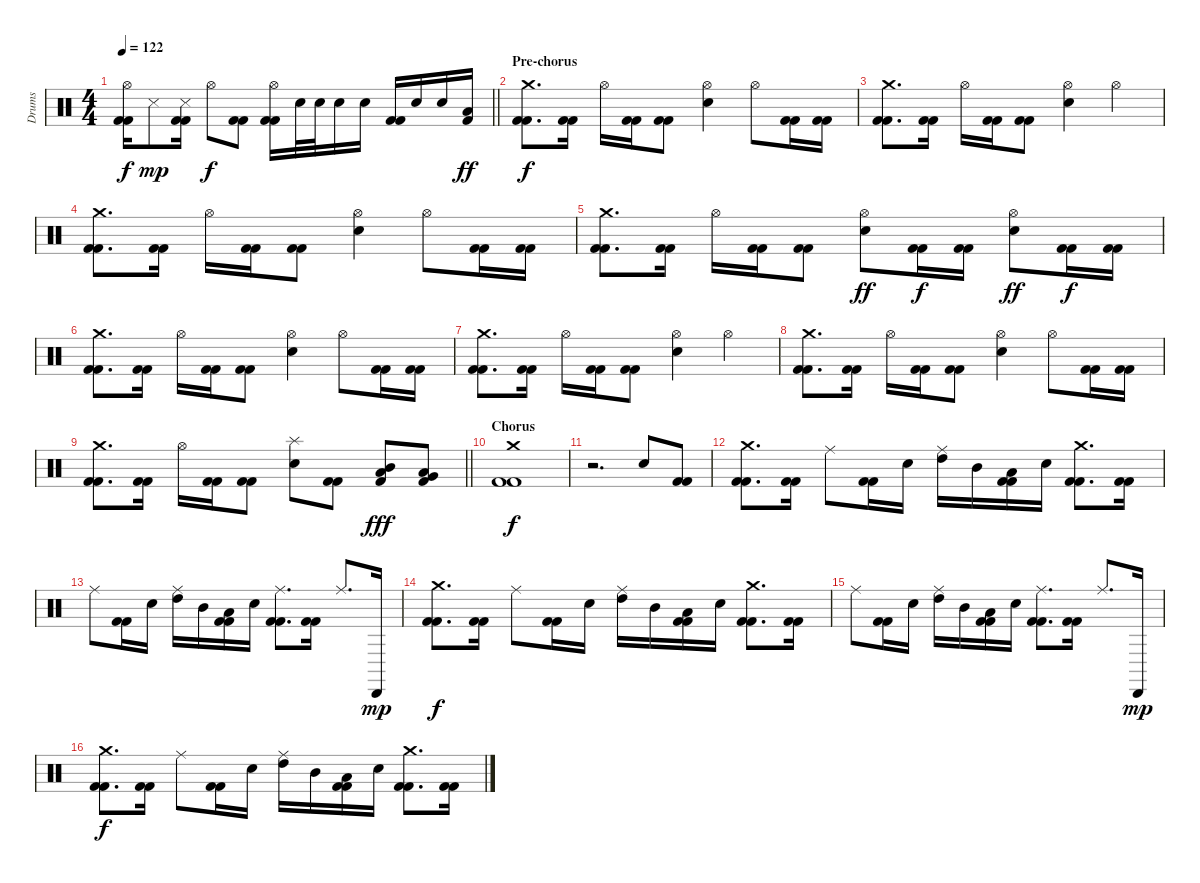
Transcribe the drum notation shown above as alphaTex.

\track ("Drums" "Drums") {instrument percussion}
\staff {score}
\articulation defaults
\ts (4 4)
\tempo 122
\clef neutral
\barLineRight lightlight
\ks c
("Hi-Hat (open)" "Kick (hit) 2" "Kick (hit) 2").16{dy f} "Snare (side stick) 3".8{dy mp} ("Snare (side stick) 3" "Kick (hit) 2" "Kick (hit) 2").16 "Hi-Hat (open)".8{dy f} ("Kick (hit) 2" "Kick (hit) 2").8 ("Hi-Hat (open)" "Kick (hit) 2" "Kick (hit) 2").16 "Electric Snare (hit)".32 "Electric Snare (hit)".32 "Electric Snare (hit)".16 "Electric Snare (hit)".16 ("Kick (hit) 2" "Kick (hit) 2").16 "Electric Snare (hit)".16 "Electric Snare (hit)".16 ("Low Tom (hit)" "Kick (hit) 2").16{dy ff} |
\section ("" "Pre-chorus")
("Crash medium (hit)" "Kick (hit) 2" "Kick (hit) 2").8{d dy f} ("Kick (hit) 2" "Kick (hit) 2").16 "Hi-Hat (open)".16 ("Kick (hit) 2" "Kick (hit) 2").16 ("Kick (hit) 2" "Kick (hit) 2").8 ("Hi-Hat (open)" "Electric Snare (hit)").4 "Hi-Hat (open)".8 ("Kick (hit) 2" "Kick (hit) 2").16 ("Kick (hit) 2" "Kick (hit) 2").16 |
("Crash medium (hit)" "Kick (hit) 2" "Kick (hit) 2").8{d} ("Kick (hit) 2" "Kick (hit) 2").16 "Hi-Hat (open)".16 ("Kick (hit) 2" "Kick (hit) 2").16 ("Kick (hit) 2" "Kick (hit) 2").8 ("Hi-Hat (open)" "Electric Snare (hit)").4 "Hi-Hat (open)".4 |
("Crash medium (hit)" "Kick (hit) 2" "Kick (hit) 2").8{d} ("Kick (hit) 2" "Kick (hit) 2").16 "Hi-Hat (open)".16 ("Kick (hit) 2" "Kick (hit) 2").16 ("Kick (hit) 2" "Kick (hit) 2").8 ("Hi-Hat (open)" "Electric Snare (hit)").4 "Hi-Hat (open)".8 ("Kick (hit) 2" "Kick (hit) 2").16 ("Kick (hit) 2" "Kick (hit) 2").16 |
("Crash medium (hit)" "Kick (hit) 2" "Kick (hit) 2").8{d} ("Kick (hit) 2" "Kick (hit) 2").16 "Hi-Hat (open)".16 ("Kick (hit) 2" "Kick (hit) 2").16 ("Kick (hit) 2" "Kick (hit) 2").8 ("Hi-Hat (open)" "Electric Snare (hit)").8{dy ff} ("Kick (hit) 2" "Kick (hit) 2").16{dy f} ("Kick (hit) 2" "Kick (hit) 2").16 ("Hi-Hat (open)" "Electric Snare (hit)").8{dy ff} ("Kick (hit) 2" "Kick (hit) 2").16{dy f} ("Kick (hit) 2" "Kick (hit) 2").16 |
("Crash medium (hit)" "Kick (hit) 2" "Kick (hit) 2").8{d} ("Kick (hit) 2" "Kick (hit) 2").16 "Hi-Hat (open)".16 ("Kick (hit) 2" "Kick (hit) 2").16 ("Kick (hit) 2" "Kick (hit) 2").8 ("Hi-Hat (open)" "Electric Snare (hit)").4 "Hi-Hat (open)".8 ("Kick (hit) 2" "Kick (hit) 2").16 ("Kick (hit) 2" "Kick (hit) 2").16 |
("Crash medium (hit)" "Kick (hit) 2" "Kick (hit) 2").8{d} ("Kick (hit) 2" "Kick (hit) 2").16 "Hi-Hat (open)".16 ("Kick (hit) 2" "Kick (hit) 2").16 ("Kick (hit) 2" "Kick (hit) 2").8 ("Hi-Hat (open)" "Electric Snare (hit)").4 "Hi-Hat (open)".4 |
("Crash medium (hit)" "Kick (hit) 2" "Kick (hit) 2").8{d} ("Kick (hit) 2" "Kick (hit) 2").16 "Hi-Hat (open)".16 ("Kick (hit) 2" "Kick (hit) 2").16 ("Kick (hit) 2" "Kick (hit) 2").8 ("Hi-Hat (open)" "Electric Snare (hit)").4 "Hi-Hat (open)".8 ("Kick (hit) 2" "Kick (hit) 2").16 ("Kick (hit) 2" "Kick (hit) 2").16 |
\barLineRight lightlight
("Crash medium (hit)" "Kick (hit) 2" "Kick (hit) 2").8{d} ("Kick (hit) 2" "Kick (hit) 2").16 "Hi-Hat (open)".16 ("Kick (hit) 2" "Kick (hit) 2").16 ("Kick (hit) 2" "Kick (hit) 2").8 ("Splash (hit)" "Electric Snare (hit)").8 ("Kick (hit) 2" "Kick (hit) 2").8 ("Mid Tom (hit)" "Low Tom (hit)" "Kick (hit) 2").8{dy fff} ("Low Tom (hit)" "Very Low Tom (hit)" "Kick (hit) 2").8 |
\section ("" "Chorus")
("Crash medium (hit)" "Kick (hit) 2" "Kick (hit) 2").1{dy f} |
r.2{d} "Electric Snare (hit)".8 ("Kick (hit) 2" "Kick (hit) 2").8 |
("Crash medium (hit)" "Kick (hit) 2" "Kick (hit) 2").8{d} ("Kick (hit) 2" "Kick (hit) 2").16 "Ride (middle)".8 ("Kick (hit) 2" "Kick (hit) 2").16 "Electric Snare (hit)".16 ("Ride (middle)" "High Tom (hit)").16 "Mid Tom (hit)".16 ("Low Tom (hit)" "Kick (hit) 2" "Kick (hit) 2").16 "Electric Snare (hit)".16 ("Crash medium (hit)" "Kick (hit) 2" "Kick (hit) 2").8{d} ("Kick (hit) 2" "Kick (hit) 2").16 |
"Ride (middle)".8 ("Kick (hit) 2" "Kick (hit) 2").16 "Electric Snare (hit)".16 ("Ride (middle)" "High Tom (hit)").16 "Mid Tom (hit)".16 ("Low Tom (hit)" "Kick (hit) 2" "Kick (hit) 2").16 "Electric Snare (hit)".16 ("Ride (middle)" "Kick (hit) 2" "Kick (hit) 2").8{d} ("Kick (hit) 2" "Kick (hit) 2").16 "Ride (middle)".8{d} "Cabasa (hit)".16{dy mp} |
("Crash medium (hit)" "Kick (hit) 2" "Kick (hit) 2").8{d dy f} ("Kick (hit) 2" "Kick (hit) 2").16 "Ride (middle)".8 ("Kick (hit) 2" "Kick (hit) 2").16 "Electric Snare (hit)".16 ("Ride (middle)" "High Tom (hit)").16 "Mid Tom (hit)".16 ("Low Tom (hit)" "Kick (hit) 2" "Kick (hit) 2").16 "Electric Snare (hit)".16 ("Crash medium (hit)" "Kick (hit) 2" "Kick (hit) 2").8{d} ("Kick (hit) 2" "Kick (hit) 2").16 |
"Ride (middle)".8 ("Kick (hit) 2" "Kick (hit) 2").16 "Electric Snare (hit)".16 ("Ride (middle)" "High Tom (hit)").16 "Mid Tom (hit)".16 ("Low Tom (hit)" "Kick (hit) 2" "Kick (hit) 2").16 "Electric Snare (hit)".16 ("Ride (middle)" "Kick (hit) 2" "Kick (hit) 2").8{d} ("Kick (hit) 2" "Kick (hit) 2").16 "Ride (middle)".8{d} "Cabasa (hit)".16{dy mp} |
("Crash medium (hit)" "Kick (hit) 2" "Kick (hit) 2").8{d dy f} ("Kick (hit) 2" "Kick (hit) 2").16 "Ride (middle)".8 ("Kick (hit) 2" "Kick (hit) 2").16 "Electric Snare (hit)".16 ("Ride (middle)" "High Tom (hit)").16 "Mid Tom (hit)".16 ("Low Tom (hit)" "Kick (hit) 2" "Kick (hit) 2").16 "Electric Snare (hit)".16 ("Crash medium (hit)" "Kick (hit) 2" "Kick (hit) 2").8{d} ("Kick (hit) 2" "Kick (hit) 2").16
